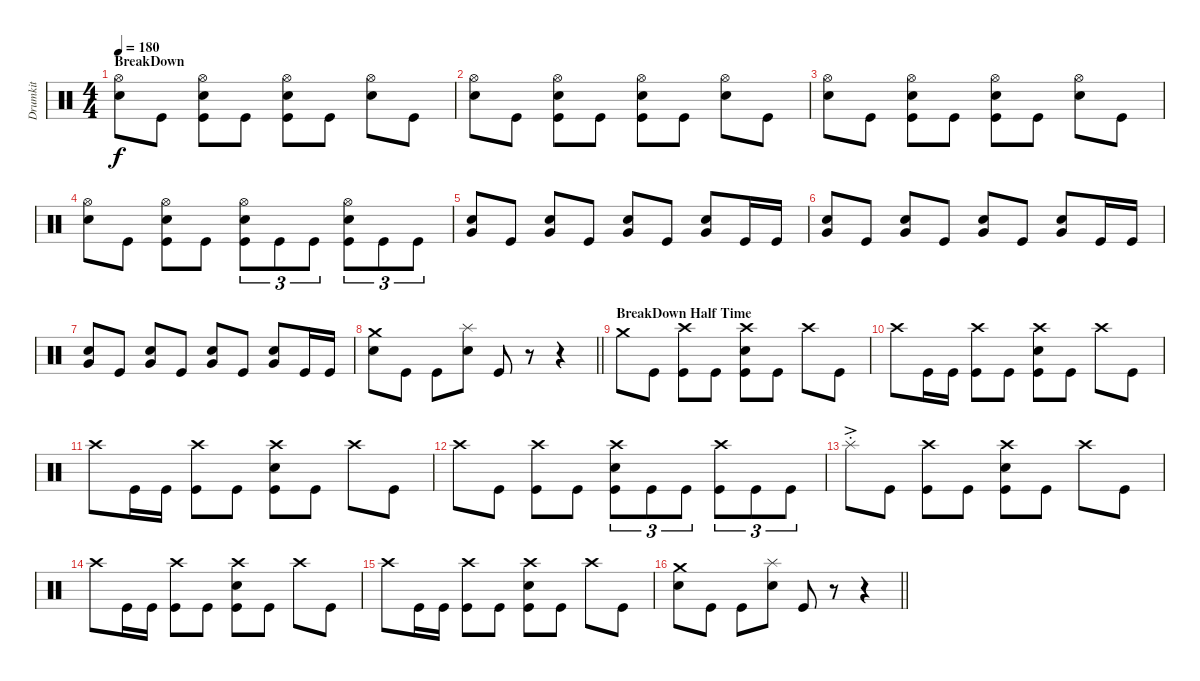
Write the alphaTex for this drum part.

\track ("Drumkit" "Drumkit") {instrument percussion}
\staff {score}
\articulation defaults
\ts (4 4)
\section ("" "BreakDown")
\tempo 180
\clef neutral
\ks c
("Hi-Hat (open)" "Snare (hit) 2").8{dy f} "Kick (hit)".8 ("Hi-Hat (open)" "Snare (hit) 2" "Kick (hit)").8 "Kick (hit)".8 ("Hi-Hat (open)" "Snare (hit) 2" "Kick (hit)").8 "Kick (hit)".8 ("Hi-Hat (open)" "Snare (hit) 2").8 "Kick (hit)".8 |
("Hi-Hat (open)" "Snare (hit) 2").8 "Kick (hit)".8 ("Hi-Hat (open)" "Snare (hit) 2" "Kick (hit)").8 "Kick (hit)".8 ("Hi-Hat (open)" "Snare (hit) 2" "Kick (hit)").8 "Kick (hit)".8 ("Hi-Hat (open)" "Snare (hit) 2").8 "Kick (hit)".8 |
("Hi-Hat (open)" "Snare (hit) 2").8 "Kick (hit)".8 ("Hi-Hat (open)" "Snare (hit) 2" "Kick (hit)").8 "Kick (hit)".8 ("Hi-Hat (open)" "Snare (hit) 2" "Kick (hit)").8 "Kick (hit)".8 ("Hi-Hat (open)" "Snare (hit) 2").8 "Kick (hit)".8 |
("Hi-Hat (open)" "Snare (hit) 2").8 "Kick (hit)".8 ("Hi-Hat (open)" "Snare (hit) 2" "Kick (hit)").8 "Kick (hit)".8 ("Hi-Hat (open)" "Snare (hit) 2" "Kick (hit)").8{tu (3 2)} "Kick (hit)".8{tu (3 2)} "Kick (hit)".8{tu (3 2)} ("Hi-Hat (open)" "Snare (hit) 2" "Kick (hit)").8{tu (3 2)} "Kick (hit)".8{tu (3 2)} "Kick (hit)".8{tu (3 2)} |
("Snare (hit) 2" "Very Low Tom (hit)").8 "Kick (hit)".8 ("Snare (hit) 2" "Very Low Tom (hit)").8 "Kick (hit)".8 ("Snare (hit) 2" "Very Low Tom (hit)").8 "Kick (hit)".8 ("Snare (hit) 2" "Very Low Tom (hit)").8 "Kick (hit)".16 "Kick (hit)".16 |
("Snare (hit) 2" "Very Low Tom (hit)").8 "Kick (hit)".8 ("Snare (hit) 2" "Very Low Tom (hit)").8 "Kick (hit)".8 ("Snare (hit) 2" "Very Low Tom (hit)").8 "Kick (hit)".8 ("Snare (hit) 2" "Very Low Tom (hit)").8 "Kick (hit)".16 "Kick (hit)".16 |
("Snare (hit) 2" "Very Low Tom (hit)").8 "Kick (hit)".8 ("Snare (hit) 2" "Very Low Tom (hit)").8 "Kick (hit)".8 ("Snare (hit) 2" "Very Low Tom (hit)").8 "Kick (hit)".8 ("Snare (hit) 2" "Very Low Tom (hit)").8 "Kick (hit)".16 "Kick (hit)".16 |
\barLineRight lightlight
("Crash medium (hit)" "Snare (hit) 2").8 "Kick (hit)".8 "Kick (hit)".8 ("Splash (hit)" "Snare (hit) 2").8 "Kick (hit)".8 r.8 r.4 |
\section ("" "BreakDown Half Time")
"Crash medium (hit)".8 "Kick (hit)".8 ("Crash high (hit)" "Kick (hit)").8 "Kick (hit)".8 ("Crash high (hit)" "Snare (hit) 2" "Kick (hit)").8 "Kick (hit)".8 "Crash high (hit)".8 "Kick (hit)".8 |
"Crash high (hit)".8 "Kick (hit)".16 "Kick (hit)".16 ("Crash high (hit)" "Kick (hit)").8 "Kick (hit)".8 ("Crash high (hit)" "Snare (hit) 2" "Kick (hit)").8 "Kick (hit)".8 "Crash high (hit)".8 "Kick (hit)".8 |
"Crash high (hit)".8 "Kick (hit)".16 "Kick (hit)".16 ("Crash high (hit)" "Kick (hit)").8 "Kick (hit)".8 ("Crash high (hit)" "Snare (hit) 2" "Kick (hit)").8 "Kick (hit)".8 "Crash high (hit)".8 "Kick (hit)".8 |
"Crash high (hit)".8 "Kick (hit)".8 ("Crash high (hit)" "Kick (hit)").8 "Kick (hit)".8 ("Crash high (hit)" "Snare (hit) 2" "Kick (hit)").8{tu (3 2)} "Kick (hit)".8{tu (3 2)} "Kick (hit)".8{tu (3 2)} ("Crash high (hit)" "Kick (hit)").8{tu (3 2)} "Kick (hit)".8{tu (3 2)} "Kick (hit)".8{tu (3 2)} |
"Splash (hit)"{ac st}.8 "Kick (hit)".8 ("Crash high (hit)" "Kick (hit)").8 "Kick (hit)".8 ("Crash high (hit)" "Snare (hit) 2" "Kick (hit)").8 "Kick (hit)".8 "Crash high (hit)".8 "Kick (hit)".8 |
"Crash high (hit)".8 "Kick (hit)".16 "Kick (hit)".16 ("Crash high (hit)" "Kick (hit)").8 "Kick (hit)".8 ("Crash high (hit)" "Snare (hit) 2" "Kick (hit)").8 "Kick (hit)".8 "Crash high (hit)".8 "Kick (hit)".8 |
"Crash high (hit)".8 "Kick (hit)".16 "Kick (hit)".16 ("Crash high (hit)" "Kick (hit)").8 "Kick (hit)".8 ("Crash high (hit)" "Snare (hit) 2" "Kick (hit)").8 "Kick (hit)".8 "Crash high (hit)".8 "Kick (hit)".8 |
\barLineRight lightlight
("Crash medium (hit)" "Snare (hit) 2").8 "Kick (hit)".8 "Kick (hit)".8 ("Splash (hit)" "Snare (hit) 2").8 "Kick (hit)".8 r.8 r.4
